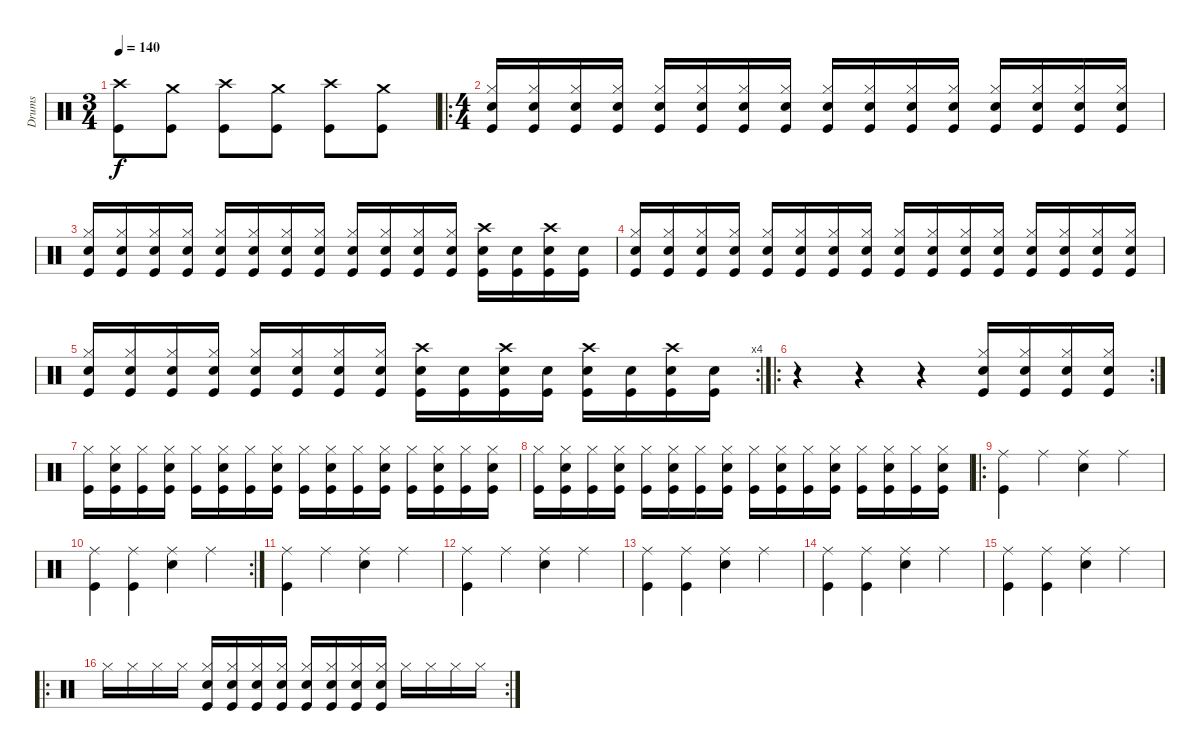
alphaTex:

\track ("Drums" "Drums") {instrument percussion}
\staff {score}
\articulation defaults
\ts (3 4)
\tempo 140
\clef neutral
\ks c
("Crash high (hit)" "Kick (hit)").8{dy f} ("Crash medium (hit)" "Kick (hit)").8 ("Crash high (hit)" "Kick (hit)").8 ("Crash medium (hit)" "Kick (hit)").8 ("Crash high (hit)" "Kick (hit)").8 ("Crash medium (hit)" "Kick (hit)").8 |
\ro
\ts (4 4)
("Hi-Hat (closed)" "Snare (hit) 2" "Kick (hit)").16 ("Hi-Hat (closed)" "Snare (hit) 2" "Kick (hit)").16 ("Hi-Hat (closed)" "Snare (hit) 2" "Kick (hit)").16 ("Hi-Hat (closed)" "Snare (hit) 2" "Kick (hit)").16 ("Hi-Hat (closed)" "Snare (hit) 2" "Kick (hit)").16 ("Hi-Hat (closed)" "Snare (hit) 2" "Kick (hit)").16 ("Hi-Hat (closed)" "Snare (hit) 2" "Kick (hit)").16 ("Hi-Hat (closed)" "Snare (hit) 2" "Kick (hit)").16 ("Hi-Hat (closed)" "Snare (hit) 2" "Kick (hit)").16 ("Hi-Hat (closed)" "Snare (hit) 2" "Kick (hit)").16 ("Hi-Hat (closed)" "Snare (hit) 2" "Kick (hit)").16 ("Hi-Hat (closed)" "Snare (hit) 2" "Kick (hit)").16 ("Hi-Hat (closed)" "Snare (hit) 2" "Kick (hit)").16 ("Hi-Hat (closed)" "Snare (hit) 2" "Kick (hit)").16 ("Hi-Hat (closed)" "Snare (hit) 2" "Kick (hit)").16 ("Hi-Hat (closed)" "Snare (hit) 2" "Kick (hit)").16 |
("Hi-Hat (closed)" "Snare (hit) 2" "Kick (hit)").16 ("Hi-Hat (closed)" "Snare (hit) 2" "Kick (hit)").16 ("Hi-Hat (closed)" "Snare (hit) 2" "Kick (hit)").16 ("Hi-Hat (closed)" "Snare (hit) 2" "Kick (hit)").16 ("Hi-Hat (closed)" "Snare (hit) 2" "Kick (hit)").16 ("Hi-Hat (closed)" "Snare (hit) 2" "Kick (hit)").16 ("Hi-Hat (closed)" "Snare (hit) 2" "Kick (hit)").16 ("Hi-Hat (closed)" "Snare (hit) 2" "Kick (hit)").16 ("Hi-Hat (closed)" "Snare (hit) 2" "Kick (hit)").16 ("Hi-Hat (closed)" "Snare (hit) 2" "Kick (hit)").16 ("Hi-Hat (closed)" "Snare (hit) 2" "Kick (hit)").16 ("Hi-Hat (closed)" "Snare (hit) 2" "Kick (hit)").16 ("Crash high (hit)" "Snare (hit) 2" "Kick (hit)").16 ("Snare (hit) 2" "Kick (hit)").16 ("Crash high (hit)" "Snare (hit) 2" "Kick (hit)").16 ("Snare (hit) 2" "Kick (hit)").16 |
("Hi-Hat (closed)" "Snare (hit) 2" "Kick (hit)").16 ("Hi-Hat (closed)" "Snare (hit) 2" "Kick (hit)").16 ("Hi-Hat (closed)" "Snare (hit) 2" "Kick (hit)").16 ("Hi-Hat (closed)" "Snare (hit) 2" "Kick (hit)").16 ("Hi-Hat (closed)" "Snare (hit) 2" "Kick (hit)").16 ("Hi-Hat (closed)" "Snare (hit) 2" "Kick (hit)").16 ("Hi-Hat (closed)" "Snare (hit) 2" "Kick (hit)").16 ("Hi-Hat (closed)" "Snare (hit) 2" "Kick (hit)").16 ("Hi-Hat (closed)" "Snare (hit) 2" "Kick (hit)").16 ("Hi-Hat (closed)" "Snare (hit) 2" "Kick (hit)").16 ("Hi-Hat (closed)" "Snare (hit) 2" "Kick (hit)").16 ("Hi-Hat (closed)" "Snare (hit) 2" "Kick (hit)").16 ("Hi-Hat (closed)" "Snare (hit) 2" "Kick (hit)").16 ("Hi-Hat (closed)" "Snare (hit) 2" "Kick (hit)").16 ("Hi-Hat (closed)" "Snare (hit) 2" "Kick (hit)").16 ("Hi-Hat (closed)" "Snare (hit) 2" "Kick (hit)").16 |
\rc 4
("Hi-Hat (closed)" "Snare (hit) 2" "Kick (hit)").16 ("Hi-Hat (closed)" "Snare (hit) 2" "Kick (hit)").16 ("Hi-Hat (closed)" "Snare (hit) 2" "Kick (hit)").16 ("Hi-Hat (closed)" "Snare (hit) 2" "Kick (hit)").16 ("Hi-Hat (closed)" "Snare (hit) 2" "Kick (hit)").16 ("Hi-Hat (closed)" "Snare (hit) 2" "Kick (hit)").16 ("Hi-Hat (closed)" "Snare (hit) 2" "Kick (hit)").16 ("Hi-Hat (closed)" "Snare (hit) 2" "Kick (hit)").16 ("Crash high (hit)" "Snare (hit) 2" "Kick (hit)").16 ("Snare (hit) 2" "Kick (hit)").16 ("Crash high (hit)" "Snare (hit) 2" "Kick (hit)").16 ("Snare (hit) 2" "Kick (hit)").16 ("Crash high (hit)" "Snare (hit) 2" "Kick (hit)").16 ("Snare (hit) 2" "Kick (hit)").16 ("Crash high (hit)" "Snare (hit) 2" "Kick (hit)").16 ("Snare (hit) 2" "Kick (hit)").16 |
\ro
\rc 2
r.4 r.4 r.4 ("Hi-Hat (closed)" "Snare (hit) 2" "Kick (hit)").16 ("Hi-Hat (closed)" "Snare (hit) 2" "Kick (hit)").16 ("Hi-Hat (closed)" "Snare (hit) 2" "Kick (hit)").16 ("Hi-Hat (closed)" "Snare (hit) 2" "Kick (hit)").16 |
("Hi-Hat (closed)" "Kick (hit)").16 ("Hi-Hat (closed)" "Snare (hit) 2" "Kick (hit)").16 ("Hi-Hat (closed)" "Kick (hit)").16 ("Hi-Hat (closed)" "Snare (hit) 2" "Kick (hit)").16 ("Hi-Hat (closed)" "Kick (hit)").16 ("Hi-Hat (closed)" "Snare (hit) 2" "Kick (hit)").16 ("Hi-Hat (closed)" "Kick (hit)").16 ("Hi-Hat (closed)" "Snare (hit) 2" "Kick (hit)").16 ("Hi-Hat (closed)" "Kick (hit)").16 ("Hi-Hat (closed)" "Snare (hit) 2" "Kick (hit)").16 ("Hi-Hat (closed)" "Kick (hit)").16 ("Hi-Hat (closed)" "Snare (hit) 2" "Kick (hit)").16 ("Hi-Hat (closed)" "Kick (hit)").16 ("Hi-Hat (closed)" "Snare (hit) 2" "Kick (hit)").16 ("Hi-Hat (closed)" "Kick (hit)").16 ("Hi-Hat (closed)" "Snare (hit) 2" "Kick (hit)").16 |
("Hi-Hat (closed)" "Kick (hit)").16 ("Hi-Hat (closed)" "Snare (hit) 2" "Kick (hit)").16 ("Hi-Hat (closed)" "Kick (hit)").16 ("Hi-Hat (closed)" "Snare (hit) 2" "Kick (hit)").16 ("Hi-Hat (closed)" "Kick (hit)").16 ("Hi-Hat (closed)" "Snare (hit) 2" "Kick (hit)").16 ("Hi-Hat (closed)" "Kick (hit)").16 ("Hi-Hat (closed)" "Snare (hit) 2" "Kick (hit)").16 ("Hi-Hat (closed)" "Kick (hit)").16 ("Hi-Hat (closed)" "Snare (hit) 2" "Kick (hit)").16 ("Hi-Hat (closed)" "Kick (hit)").16 ("Hi-Hat (closed)" "Snare (hit) 2" "Kick (hit)").16 ("Hi-Hat (closed)" "Kick (hit)").16 ("Hi-Hat (closed)" "Snare (hit) 2" "Kick (hit)").16 ("Hi-Hat (closed)" "Kick (hit)").16 ("Hi-Hat (closed)" "Snare (hit) 2" "Kick (hit)").16 |
\ro
("Ride (middle)" "Kick (hit)").4 "Ride (middle)".4 ("Ride (middle)" "Snare (hit) 2").4 "Ride (middle)".4 |
\rc 2
("Ride (middle)" "Kick (hit)").4 ("Ride (middle)" "Kick (hit)").4 ("Ride (middle)" "Snare (hit) 2").4 "Ride (middle)".4 |
("Ride (middle)" "Kick (hit)").4 "Ride (middle)".4 ("Ride (middle)" "Snare (hit) 2").4 "Ride (middle)".4 |
("Ride (middle)" "Kick (hit)").4 "Ride (middle)".4 ("Ride (middle)" "Snare (hit) 2").4 "Ride (middle)".4 |
("Ride (middle)" "Kick (hit)").4 ("Ride (middle)" "Kick (hit)").4 ("Ride (middle)" "Snare (hit) 2").4 "Ride (middle)".4 |
("Ride (middle)" "Kick (hit)").4 ("Ride (middle)" "Kick (hit)").4 ("Ride (middle)" "Snare (hit) 2").4 "Ride (middle)".4 |
("Ride (middle)" "Kick (hit)").4 ("Ride (middle)" "Kick (hit)").4 ("Ride (middle)" "Snare (hit) 2").4 "Ride (middle)".4 |
\ro
\rc 2 "Hi-Hat (closed)".16 "Hi-Hat (closed)".16 "Hi-Hat (closed)".16 "Hi-Hat (closed)".16
("Hi-Hat (closed)" "Snare (hit) 2" "Kick (hit)").16 ("Hi-Hat (closed)" "Snare (hit) 2" "Kick (hit)").16 ("Hi-Hat (closed)" "Snare (hit) 2" "Kick (hit)").16 ("Hi-Hat (closed)" "Snare (hit) 2" "Kick (hit)").16 ("Hi-Hat (closed)" "Snare (hit) 2" "Kick (hit)").16 ("Hi-Hat (closed)" "Snare (hit) 2" "Kick (hit)").16 ("Hi-Hat (closed)" "Snare (hit) 2" "Kick (hit)").16 ("Hi-Hat (closed)" "Snare (hit) 2" "Kick (hit)").16 "Hi-Hat (closed)".16 "Hi-Hat (closed)".16 "Hi-Hat (closed)".16 "Hi-Hat (closed)".16
